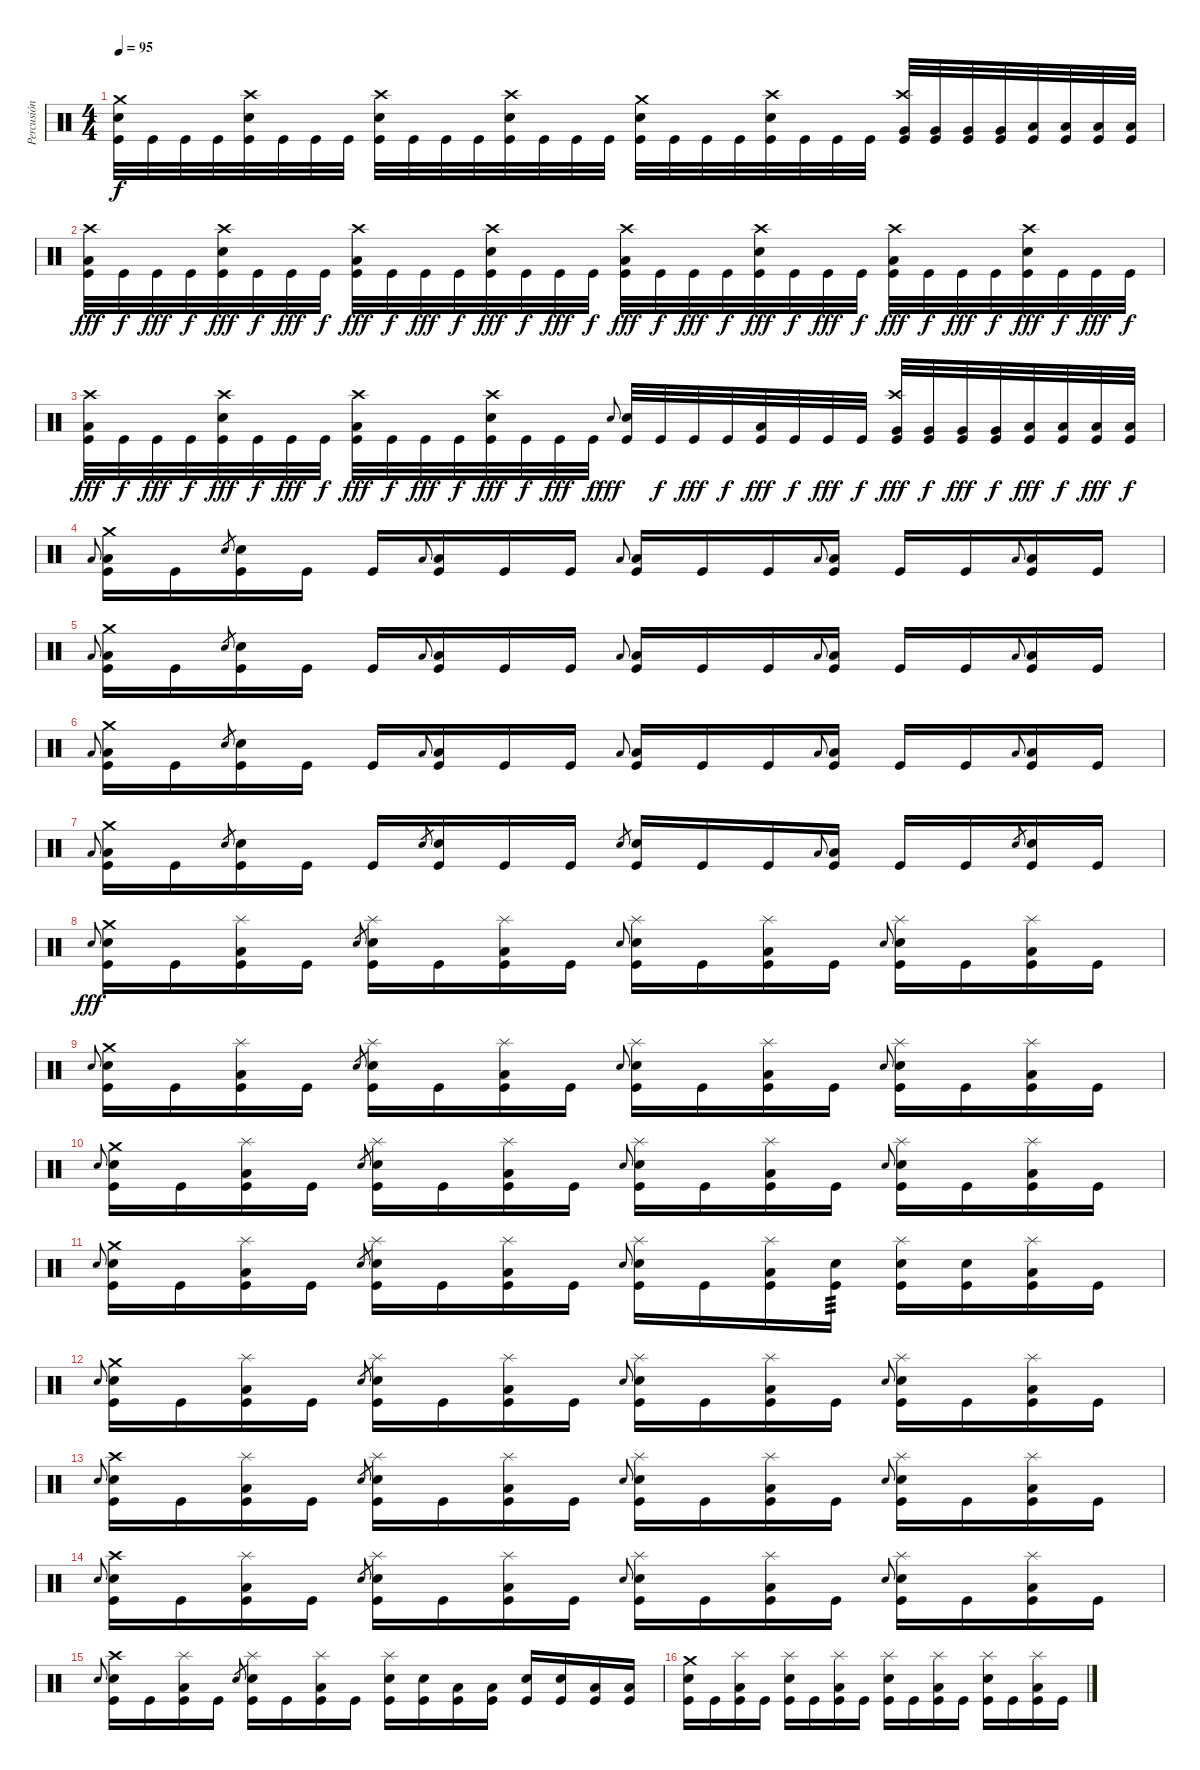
\track ("Percusión" "Percusión") {instrument percussion}
\staff {score}
\articulation defaults
\ts (4 4)
\tempo 95
\clef neutral
\ks c
("Crash medium (hit)" "Snare (hit) 2" "Kick (hit)").32{dy f} "Kick (hit)".32 "Kick (hit)".32 "Kick (hit)".32 ("Crash high (hit)" "Snare (hit) 2" "Kick (hit)").32 "Kick (hit)".32 "Kick (hit)".32 "Kick (hit)".32 ("Crash high (hit)" "Snare (hit) 2" "Kick (hit)").32 "Kick (hit)".32 "Kick (hit)".32 "Kick (hit)".32 ("Crash high (hit)" "Snare (hit) 2" "Kick (hit)").32 "Kick (hit)".32 "Kick (hit)".32 "Kick (hit)".32 ("Crash medium (hit)" "Snare (hit) 2" "Kick (hit)").32 "Kick (hit)".32 "Kick (hit)".32 "Kick (hit)".32 ("Crash high (hit)" "Snare (hit) 2" "Kick (hit)").32 "Kick (hit)".32 "Kick (hit)".32 "Kick (hit)".32 ("Crash high (hit)" "Very Low Tom (hit)" "Kick (hit)").32 ("Very Low Tom (hit)" "Kick (hit)").32 ("Very Low Tom (hit)" "Kick (hit)").32 ("Very Low Tom (hit)" "Kick (hit)").32 ("Low Floor Tom (hit)" "Kick (hit)").32 ("Low Floor Tom (hit)" "Kick (hit)").32 ("Low Floor Tom (hit)" "Kick (hit)").32 ("Low Floor Tom (hit)" "Kick (hit)").32 |
("Crash high (hit)" "Low Floor Tom (hit)" "Kick (hit)").32{dy fff} "Kick (hit)".32{dy f} "Kick (hit)".32{dy fff} "Kick (hit)".32{dy f} ("Crash high (hit)" "Snare (hit) 2" "Kick (hit)").32{dy fff} "Kick (hit)".32{dy f} "Kick (hit)".32{dy fff} "Kick (hit)".32{dy f} ("Crash high (hit)" "Low Floor Tom (hit)" "Kick (hit)").32{dy fff} "Kick (hit)".32{dy f} "Kick (hit)".32{dy fff} "Kick (hit)".32{dy f} ("Crash high (hit)" "Snare (hit) 2" "Kick (hit)").32{dy fff} "Kick (hit)".32{dy f} "Kick (hit)".32{dy fff} "Kick (hit)".32{dy f} ("Crash high (hit)" "Low Floor Tom (hit)" "Kick (hit)").32{dy fff} "Kick (hit)".32{dy f} "Kick (hit)".32{dy fff} "Kick (hit)".32{dy f} ("Crash high (hit)" "Snare (hit) 2" "Kick (hit)").32{dy fff} "Kick (hit)".32{dy f} "Kick (hit)".32{dy fff} "Kick (hit)".32{dy f} ("Crash high (hit)" "Low Floor Tom (hit)" "Kick (hit)").32{dy fff} "Kick (hit)".32{dy f} "Kick (hit)".32{dy fff} "Kick (hit)".32{dy f} ("Crash high (hit)" "Snare (hit) 2" "Kick (hit)").32{dy fff} "Kick (hit)".32{dy f} "Kick (hit)".32{dy fff} "Kick (hit)".32{dy f} |
("Crash high (hit)" "Low Floor Tom (hit)" "Kick (hit)").32{dy fff} "Kick (hit)".32{dy f} "Kick (hit)".32{dy fff} "Kick (hit)".32{dy f} ("Crash high (hit)" "Snare (hit) 2" "Kick (hit)").32{dy fff} "Kick (hit)".32{dy f} "Kick (hit)".32{dy fff} "Kick (hit)".32{dy f} ("Crash high (hit)" "Low Floor Tom (hit)" "Kick (hit)").32{dy fff} "Kick (hit)".32{dy f} "Kick (hit)".32{dy fff} "Kick (hit)".32{dy f} ("Crash high (hit)" "Snare (hit) 2" "Kick (hit)").32{dy fff} "Kick (hit)".32{dy f} "Kick (hit)".32{dy fff} "Kick (hit)".32{dy f} "Snare (hit) 2".8{gr onbeat dy fff} ("Snare (hit) 2" "Kick (hit)").32 "Kick (hit)".32{dy f} "Kick (hit)".32{dy fff} "Kick (hit)".32{dy f} ("Low Floor Tom (hit)" "Kick (hit)").32{dy fff} "Kick (hit)".32{dy f} "Kick (hit)".32{dy fff} "Kick (hit)".32{dy f} ("Crash high (hit)" "Very Low Tom (hit)" "Kick (hit)").32{dy fff} ("Very Low Tom (hit)" "Kick (hit)").32{dy f} ("Very Low Tom (hit)" "Kick (hit)").32{dy fff} ("Very Low Tom (hit)" "Kick (hit)").32{dy f} ("Low Floor Tom (hit)" "Kick (hit)").32{dy fff} ("Low Floor Tom (hit)" "Kick (hit)").32{dy f} ("Low Floor Tom (hit)" "Kick (hit)").32{dy fff} ("Low Floor Tom (hit)" "Kick (hit)").32{dy f} |
"Low Floor Tom (hit)".8{gr onbeat} ("Crash medium (hit)" "Low Floor Tom (hit)" "Kick (hit)").16 "Kick (hit)".16 "Snare (hit) 2".8{gr} ("Snare (hit) 2" "Kick (hit)").16 "Kick (hit)".16 "Kick (hit)".16 "Low Floor Tom (hit)".8{gr onbeat} ("Low Floor Tom (hit)" "Kick (hit)").16 "Kick (hit)".16 "Kick (hit)".16 "Low Floor Tom (hit)".8{gr onbeat} ("Low Floor Tom (hit)" "Kick (hit)").16 "Kick (hit)".16 "Kick (hit)".16 "Low Floor Tom (hit)".8{gr onbeat} ("Low Floor Tom (hit)" "Kick (hit)").16 "Kick (hit)".16 "Kick (hit)".16 "Low Floor Tom (hit)".8{gr onbeat} ("Low Floor Tom (hit)" "Kick (hit)").16 "Kick (hit)".16 |
"Low Floor Tom (hit)".8{gr onbeat} ("Crash medium (hit)" "Low Floor Tom (hit)" "Kick (hit)").16 "Kick (hit)".16 "Snare (hit) 2".8{gr} ("Snare (hit) 2" "Kick (hit)").16 "Kick (hit)".16 "Kick (hit)".16 "Low Floor Tom (hit)".8{gr onbeat} ("Low Floor Tom (hit)" "Kick (hit)").16 "Kick (hit)".16 "Kick (hit)".16 "Low Floor Tom (hit)".8{gr onbeat} ("Low Floor Tom (hit)" "Kick (hit)").16 "Kick (hit)".16 "Kick (hit)".16 "Low Floor Tom (hit)".8{gr onbeat} ("Low Floor Tom (hit)" "Kick (hit)").16 "Kick (hit)".16 "Kick (hit)".16 "Low Floor Tom (hit)".8{gr onbeat} ("Low Floor Tom (hit)" "Kick (hit)").16 "Kick (hit)".16 |
"Low Floor Tom (hit)".8{gr onbeat} ("Crash medium (hit)" "Low Floor Tom (hit)" "Kick (hit)").16 "Kick (hit)".16 "Snare (hit) 2".8{gr} ("Snare (hit) 2" "Kick (hit)").16 "Kick (hit)".16 "Kick (hit)".16 "Low Floor Tom (hit)".8{gr onbeat} ("Low Floor Tom (hit)" "Kick (hit)").16 "Kick (hit)".16 "Kick (hit)".16 "Low Floor Tom (hit)".8{gr onbeat} ("Low Floor Tom (hit)" "Kick (hit)").16 "Kick (hit)".16 "Kick (hit)".16 "Low Floor Tom (hit)".8{gr onbeat} ("Low Floor Tom (hit)" "Kick (hit)").16 "Kick (hit)".16 "Kick (hit)".16 "Low Floor Tom (hit)".8{gr onbeat} ("Low Floor Tom (hit)" "Kick (hit)").16 "Kick (hit)".16 |
"Low Floor Tom (hit)".8{gr onbeat} ("Crash medium (hit)" "Low Floor Tom (hit)" "Kick (hit)").16 "Kick (hit)".16 "Snare (hit) 2".8{gr} ("Snare (hit) 2" "Kick (hit)").16 "Kick (hit)".16 "Kick (hit)".16 "Snare (hit) 2".8{gr} ("Snare (hit) 2" "Kick (hit)").16 "Kick (hit)".16 "Kick (hit)".16 "Snare (hit) 2".8{gr} ("Snare (hit) 2" "Kick (hit)").16 "Kick (hit)".16 "Kick (hit)".16 "Low Floor Tom (hit)".8{gr onbeat} ("Low Floor Tom (hit)" "Kick (hit)").16 "Kick (hit)".16 "Kick (hit)".16 "Snare (hit) 2".8{gr} ("Snare (hit) 2" "Kick (hit)").16 "Kick (hit)".16 |
"Snare (hit) 2".8{gr onbeat dy fff} ("Crash medium (hit)" "Snare (hit) 2" "Kick (hit)").16 "Kick (hit)".16 ("Splash (hit)" "Low Floor Tom (hit)" "Kick (hit)").16 "Kick (hit)".16 "Snare (hit) 2".8{gr} ("Splash (hit)" "Snare (hit) 2" "Kick (hit)").16 "Kick (hit)".16 ("Splash (hit)" "Low Floor Tom (hit)" "Kick (hit)").16 "Kick (hit)".16 "Snare (hit) 2".8{gr onbeat} ("Splash (hit)" "Snare (hit) 2" "Kick (hit)").16 "Kick (hit)".16 ("Splash (hit)" "Low Floor Tom (hit)" "Kick (hit)").16 "Kick (hit)".16 "Snare (hit) 2".8{gr onbeat} ("Splash (hit)" "Snare (hit) 2" "Kick (hit)").16 "Kick (hit)".16 ("Splash (hit)" "Low Floor Tom (hit)" "Kick (hit)").16 "Kick (hit)".16 |
"Snare (hit) 2".8{gr onbeat} ("Crash medium (hit)" "Snare (hit) 2" "Kick (hit)").16 "Kick (hit)".16 ("Splash (hit)" "Low Floor Tom (hit)" "Kick (hit)").16 "Kick (hit)".16 "Snare (hit) 2".8{gr} ("Splash (hit)" "Snare (hit) 2" "Kick (hit)").16 "Kick (hit)".16 ("Splash (hit)" "Low Floor Tom (hit)" "Kick (hit)").16 "Kick (hit)".16 "Snare (hit) 2".8{gr onbeat} ("Splash (hit)" "Snare (hit) 2" "Kick (hit)").16 "Kick (hit)".16 ("Splash (hit)" "Low Floor Tom (hit)" "Kick (hit)").16 "Kick (hit)".16 "Snare (hit) 2".8{gr onbeat} ("Splash (hit)" "Snare (hit) 2" "Kick (hit)").16 "Kick (hit)".16 ("Splash (hit)" "Low Floor Tom (hit)" "Kick (hit)").16 "Kick (hit)".16 |
"Snare (hit) 2".8{gr onbeat} ("Crash medium (hit)" "Snare (hit) 2" "Kick (hit)").16 "Kick (hit)".16 ("Splash (hit)" "Low Floor Tom (hit)" "Kick (hit)").16 "Kick (hit)".16 "Snare (hit) 2".8{gr} ("Splash (hit)" "Snare (hit) 2" "Kick (hit)").16 "Kick (hit)".16 ("Splash (hit)" "Low Floor Tom (hit)" "Kick (hit)").16 "Kick (hit)".16 "Snare (hit) 2".8{gr onbeat} ("Splash (hit)" "Snare (hit) 2" "Kick (hit)").16 "Kick (hit)".16 ("Splash (hit)" "Low Floor Tom (hit)" "Kick (hit)").16 "Kick (hit)".16 "Snare (hit) 2".8{gr onbeat} ("Splash (hit)" "Snare (hit) 2" "Kick (hit)").16 "Kick (hit)".16 ("Splash (hit)" "Low Floor Tom (hit)" "Kick (hit)").16 "Kick (hit)".16 |
"Snare (hit) 2".8{gr onbeat} ("Crash medium (hit)" "Snare (hit) 2" "Kick (hit)").16 "Kick (hit)".16 ("Splash (hit)" "Low Floor Tom (hit)" "Kick (hit)").16 "Kick (hit)".16 "Snare (hit) 2".8{gr} ("Splash (hit)" "Snare (hit) 2" "Kick (hit)").16 "Kick (hit)".16 ("Splash (hit)" "Low Floor Tom (hit)" "Kick (hit)").16 "Kick (hit)".16 "Snare (hit) 2".8{gr onbeat} ("Splash (hit)" "Snare (hit) 2" "Kick (hit)").16 "Kick (hit)".16 ("Splash (hit)" "Low Floor Tom (hit)" "Kick (hit)").16 ("Snare (hit) 2" "Kick (hit)").16{tp 3} ("Splash (hit)" "Snare (hit) 2" "Kick (hit)").16 ("Snare (hit) 2" "Kick (hit)").16 ("Splash (hit)" "Low Floor Tom (hit)" "Kick (hit)").16 "Kick (hit)".16 |
"Snare (hit) 2".8{gr onbeat} ("Crash medium (hit)" "Snare (hit) 2" "Kick (hit)").16 "Kick (hit)".16 ("Splash (hit)" "Low Floor Tom (hit)" "Kick (hit)").16 "Kick (hit)".16 "Snare (hit) 2".8{gr} ("Splash (hit)" "Snare (hit) 2" "Kick (hit)").16 "Kick (hit)".16 ("Splash (hit)" "Low Floor Tom (hit)" "Kick (hit)").16 "Kick (hit)".16 "Snare (hit) 2".8{gr onbeat} ("Splash (hit)" "Snare (hit) 2" "Kick (hit)").16 "Kick (hit)".16 ("Splash (hit)" "Low Floor Tom (hit)" "Kick (hit)").16 "Kick (hit)".16 "Snare (hit) 2".8{gr onbeat} ("Splash (hit)" "Snare (hit) 2" "Kick (hit)").16 "Kick (hit)".16 ("Splash (hit)" "Low Floor Tom (hit)" "Kick (hit)").16 "Kick (hit)".16 |
"Snare (hit) 2".8{gr onbeat} ("Crash high (hit)" "Snare (hit) 2" "Kick (hit)").16 "Kick (hit)".16 ("Splash (hit)" "Low Floor Tom (hit)" "Kick (hit)").16 "Kick (hit)".16 "Snare (hit) 2".8{gr} ("Splash (hit)" "Snare (hit) 2" "Kick (hit)").16 "Kick (hit)".16 ("Splash (hit)" "Low Floor Tom (hit)" "Kick (hit)").16 "Kick (hit)".16 "Snare (hit) 2".8{gr onbeat} ("Splash (hit)" "Snare (hit) 2" "Kick (hit)").16 "Kick (hit)".16 ("Splash (hit)" "Low Floor Tom (hit)" "Kick (hit)").16 "Kick (hit)".16 "Snare (hit) 2".8{gr onbeat} ("Splash (hit)" "Snare (hit) 2" "Kick (hit)").16 "Kick (hit)".16 ("Splash (hit)" "Low Floor Tom (hit)" "Kick (hit)").16 "Kick (hit)".16 |
"Snare (hit) 2".8{gr onbeat} ("Crash high (hit)" "Snare (hit) 2" "Kick (hit)").16 "Kick (hit)".16 ("Splash (hit)" "Low Floor Tom (hit)" "Kick (hit)").16 "Kick (hit)".16 "Snare (hit) 2".8{gr} ("Splash (hit)" "Snare (hit) 2" "Kick (hit)").16 "Kick (hit)".16 ("Splash (hit)" "Low Floor Tom (hit)" "Kick (hit)").16 "Kick (hit)".16 "Snare (hit) 2".8{gr onbeat} ("Splash (hit)" "Snare (hit) 2" "Kick (hit)").16 "Kick (hit)".16 ("Splash (hit)" "Low Floor Tom (hit)" "Kick (hit)").16 "Kick (hit)".16 "Snare (hit) 2".8{gr onbeat} ("Splash (hit)" "Snare (hit) 2" "Kick (hit)").16 "Kick (hit)".16 ("Splash (hit)" "Low Floor Tom (hit)" "Kick (hit)").16 "Kick (hit)".16 |
"Snare (hit) 2".8{gr onbeat} ("Crash high (hit)" "Snare (hit) 2" "Kick (hit)").16 "Kick (hit)".16 ("Splash (hit)" "Low Floor Tom (hit)" "Kick (hit)").16 "Kick (hit)".16 "Snare (hit) 2".8{gr} ("Splash (hit)" "Snare (hit) 2" "Kick (hit)").16 "Kick (hit)".16 ("Splash (hit)" "Low Floor Tom (hit)" "Kick (hit)").16 "Kick (hit)".16 ("Splash (hit)" "Snare (hit) 2" "Kick (hit)").16 ("Snare (hit) 2" "Kick (hit)").16 ("Low Floor Tom (hit)" "Kick (hit)").16 ("Low Floor Tom (hit)" "Kick (hit)").16 ("Snare (hit) 2" "Kick (hit)").16 ("Snare (hit) 2" "Kick (hit)").16 ("Low Floor Tom (hit)" "Kick (hit)").16 ("Low Floor Tom (hit)" "Kick (hit)").16 |
("Crash medium (hit)" "Snare (hit) 2" "Kick (hit)").16 "Kick (hit)".16 ("Splash (hit)" "Low Floor Tom (hit)" "Kick (hit)").16 "Kick (hit)".16 ("Splash (hit)" "Snare (hit) 2" "Kick (hit)").16 "Kick (hit)".16 ("Splash (hit)" "Low Floor Tom (hit)" "Kick (hit)").16 "Kick (hit)".16 ("Splash (hit)" "Snare (hit) 2" "Kick (hit)").16 "Kick (hit)".16 ("Splash (hit)" "Low Floor Tom (hit)" "Kick (hit)").16 "Kick (hit)".16 ("Splash (hit)" "Snare (hit) 2" "Kick (hit)").16 "Kick (hit)".16 ("Splash (hit)" "Low Floor Tom (hit)" "Kick (hit)").16 "Kick (hit)".16
